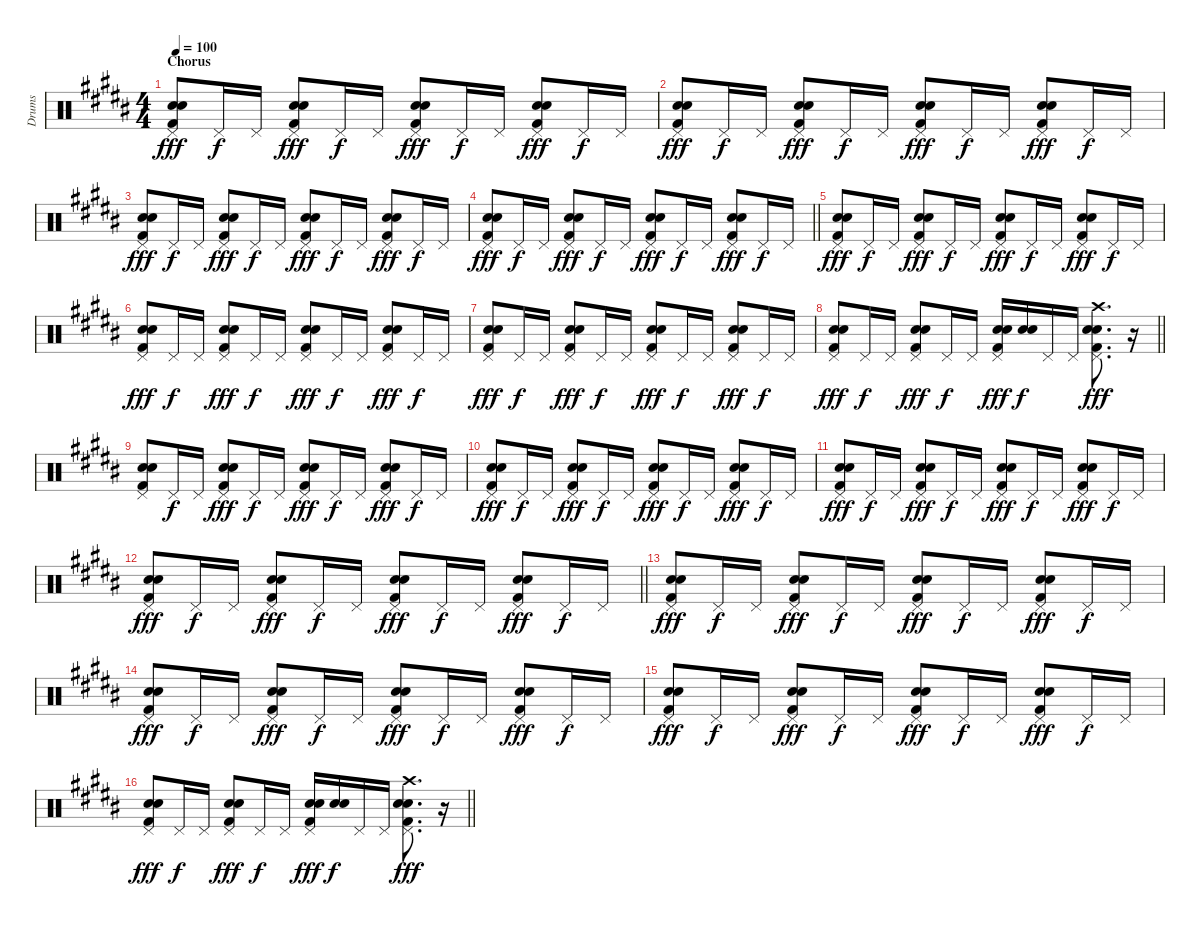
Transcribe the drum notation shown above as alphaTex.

\track ("Drums" "Drums") {instrument percussion}
\staff {score}
\articulation defaults
\ts (4 4)
\section ("" "Chorus")
\tempo 100
\clef neutral
\ks b
("Pedal Hi-Hat (hit)" "Snare (hit) 2" "Electric Snare (hit)" "Kick (hit) 2").8{dy fff} "Pedal Hi-Hat (hit)".16{dy f} "Pedal Hi-Hat (hit)".16 ("Pedal Hi-Hat (hit)" "Snare (hit) 2" "Electric Snare (hit)" "Kick (hit) 2").8{dy fff} "Pedal Hi-Hat (hit)".16{dy f} "Pedal Hi-Hat (hit)".16 ("Pedal Hi-Hat (hit)" "Snare (hit) 2" "Electric Snare (hit)" "Kick (hit) 2").8{dy fff} "Pedal Hi-Hat (hit)".16{dy f} "Pedal Hi-Hat (hit)".16 ("Pedal Hi-Hat (hit)" "Snare (hit) 2" "Electric Snare (hit)" "Kick (hit) 2").8{dy fff} "Pedal Hi-Hat (hit)".16{dy f} "Pedal Hi-Hat (hit)".16 |
("Pedal Hi-Hat (hit)" "Snare (hit) 2" "Electric Snare (hit)" "Kick (hit) 2").8{dy fff} "Pedal Hi-Hat (hit)".16{dy f} "Pedal Hi-Hat (hit)".16 ("Pedal Hi-Hat (hit)" "Snare (hit) 2" "Electric Snare (hit)" "Kick (hit) 2").8{dy fff} "Pedal Hi-Hat (hit)".16{dy f} "Pedal Hi-Hat (hit)".16 ("Pedal Hi-Hat (hit)" "Snare (hit) 2" "Electric Snare (hit)" "Kick (hit) 2").8{dy fff} "Pedal Hi-Hat (hit)".16{dy f} "Pedal Hi-Hat (hit)".16 ("Pedal Hi-Hat (hit)" "Snare (hit) 2" "Electric Snare (hit)" "Kick (hit) 2").8{dy fff} "Pedal Hi-Hat (hit)".16{dy f} "Pedal Hi-Hat (hit)".16 |
("Pedal Hi-Hat (hit)" "Snare (hit) 2" "Electric Snare (hit)" "Kick (hit) 2").8{dy fff} "Pedal Hi-Hat (hit)".16{dy f} "Pedal Hi-Hat (hit)".16 ("Pedal Hi-Hat (hit)" "Snare (hit) 2" "Electric Snare (hit)" "Kick (hit) 2").8{dy fff} "Pedal Hi-Hat (hit)".16{dy f} "Pedal Hi-Hat (hit)".16 ("Pedal Hi-Hat (hit)" "Snare (hit) 2" "Electric Snare (hit)" "Kick (hit) 2").8{dy fff} "Pedal Hi-Hat (hit)".16{dy f} "Pedal Hi-Hat (hit)".16 ("Pedal Hi-Hat (hit)" "Snare (hit) 2" "Electric Snare (hit)" "Kick (hit) 2").8{dy fff} "Pedal Hi-Hat (hit)".16{dy f} "Pedal Hi-Hat (hit)".16 |
\barLineRight lightlight
("Pedal Hi-Hat (hit)" "Snare (hit) 2" "Electric Snare (hit)" "Kick (hit) 2").8{dy fff} "Pedal Hi-Hat (hit)".16{dy f} "Pedal Hi-Hat (hit)".16 ("Pedal Hi-Hat (hit)" "Snare (hit) 2" "Electric Snare (hit)" "Kick (hit) 2").8{dy fff} "Pedal Hi-Hat (hit)".16{dy f} "Pedal Hi-Hat (hit)".16 ("Pedal Hi-Hat (hit)" "Snare (hit) 2" "Electric Snare (hit)" "Kick (hit) 2").8{dy fff} "Pedal Hi-Hat (hit)".16{dy f} "Pedal Hi-Hat (hit)".16 ("Pedal Hi-Hat (hit)" "Snare (hit) 2" "Electric Snare (hit)" "Kick (hit) 2").8{dy fff} "Pedal Hi-Hat (hit)".16{dy f} "Pedal Hi-Hat (hit)".16 |
("Pedal Hi-Hat (hit)" "Snare (hit) 2" "Electric Snare (hit)" "Kick (hit) 2").8{dy fff} "Pedal Hi-Hat (hit)".16{dy f} "Pedal Hi-Hat (hit)".16 ("Pedal Hi-Hat (hit)" "Snare (hit) 2" "Electric Snare (hit)" "Kick (hit) 2").8{dy fff} "Pedal Hi-Hat (hit)".16{dy f} "Pedal Hi-Hat (hit)".16 ("Pedal Hi-Hat (hit)" "Snare (hit) 2" "Electric Snare (hit)" "Kick (hit) 2").8{dy fff} "Pedal Hi-Hat (hit)".16{dy f} "Pedal Hi-Hat (hit)".16 ("Pedal Hi-Hat (hit)" "Snare (hit) 2" "Electric Snare (hit)" "Kick (hit) 2").8{dy fff} "Pedal Hi-Hat (hit)".16{dy f} "Pedal Hi-Hat (hit)".16 |
("Pedal Hi-Hat (hit)" "Snare (hit) 2" "Electric Snare (hit)" "Kick (hit) 2").8{dy fff} "Pedal Hi-Hat (hit)".16{dy f} "Pedal Hi-Hat (hit)".16 ("Pedal Hi-Hat (hit)" "Snare (hit) 2" "Electric Snare (hit)" "Kick (hit) 2").8{dy fff} "Pedal Hi-Hat (hit)".16{dy f} "Pedal Hi-Hat (hit)".16 ("Pedal Hi-Hat (hit)" "Snare (hit) 2" "Electric Snare (hit)" "Kick (hit) 2").8{dy fff} "Pedal Hi-Hat (hit)".16{dy f} "Pedal Hi-Hat (hit)".16 ("Pedal Hi-Hat (hit)" "Snare (hit) 2" "Electric Snare (hit)" "Kick (hit) 2").8{dy fff} "Pedal Hi-Hat (hit)".16{dy f} "Pedal Hi-Hat (hit)".16 |
("Pedal Hi-Hat (hit)" "Snare (hit) 2" "Electric Snare (hit)" "Kick (hit) 2").8{dy fff} "Pedal Hi-Hat (hit)".16{dy f} "Pedal Hi-Hat (hit)".16 ("Pedal Hi-Hat (hit)" "Snare (hit) 2" "Electric Snare (hit)" "Kick (hit) 2").8{dy fff} "Pedal Hi-Hat (hit)".16{dy f} "Pedal Hi-Hat (hit)".16 ("Pedal Hi-Hat (hit)" "Snare (hit) 2" "Electric Snare (hit)" "Kick (hit) 2").8{dy fff} "Pedal Hi-Hat (hit)".16{dy f} "Pedal Hi-Hat (hit)".16 ("Pedal Hi-Hat (hit)" "Snare (hit) 2" "Electric Snare (hit)" "Kick (hit) 2").8{dy fff} "Pedal Hi-Hat (hit)".16{dy f} "Pedal Hi-Hat (hit)".16 |
\barLineRight lightlight
("Pedal Hi-Hat (hit)" "Snare (hit) 2" "Electric Snare (hit)" "Kick (hit) 2").8{dy fff} "Pedal Hi-Hat (hit)".16{dy f} "Pedal Hi-Hat (hit)".16 ("Pedal Hi-Hat (hit)" "Snare (hit) 2" "Electric Snare (hit)" "Kick (hit) 2").8{dy fff} "Pedal Hi-Hat (hit)".16{dy f} "Pedal Hi-Hat (hit)".16 ("Pedal Hi-Hat (hit)" "Snare (hit) 2" "Electric Snare (hit)" "Kick (hit) 2").16{dy fff} ("Snare (hit) 2" "Electric Snare (hit)").16{dy f} "Pedal Hi-Hat (hit)".16 "Pedal Hi-Hat (hit)".16 ("Pedal Hi-Hat (hit)" "Snare (hit) 2" "Electric Snare (hit)" "Crash high (hit)" "Kick (hit) 2").8{d dy fff} r.16 |
("Pedal Hi-Hat (hit)" "Snare (hit) 2" "Electric Snare (hit)" "Kick (hit) 2").8 "Pedal Hi-Hat (hit)".16{dy f} "Pedal Hi-Hat (hit)".16 ("Pedal Hi-Hat (hit)" "Snare (hit) 2" "Electric Snare (hit)" "Kick (hit) 2").8{dy fff} "Pedal Hi-Hat (hit)".16{dy f} "Pedal Hi-Hat (hit)".16 ("Pedal Hi-Hat (hit)" "Snare (hit) 2" "Electric Snare (hit)" "Kick (hit) 2").8{dy fff} "Pedal Hi-Hat (hit)".16{dy f} "Pedal Hi-Hat (hit)".16 ("Pedal Hi-Hat (hit)" "Snare (hit) 2" "Electric Snare (hit)" "Kick (hit) 2").8{dy fff} "Pedal Hi-Hat (hit)".16{dy f} "Pedal Hi-Hat (hit)".16 |
("Pedal Hi-Hat (hit)" "Snare (hit) 2" "Electric Snare (hit)" "Kick (hit) 2").8{dy fff} "Pedal Hi-Hat (hit)".16{dy f} "Pedal Hi-Hat (hit)".16 ("Pedal Hi-Hat (hit)" "Snare (hit) 2" "Electric Snare (hit)" "Kick (hit) 2").8{dy fff} "Pedal Hi-Hat (hit)".16{dy f} "Pedal Hi-Hat (hit)".16 ("Pedal Hi-Hat (hit)" "Snare (hit) 2" "Electric Snare (hit)" "Kick (hit) 2").8{dy fff} "Pedal Hi-Hat (hit)".16{dy f} "Pedal Hi-Hat (hit)".16 ("Pedal Hi-Hat (hit)" "Snare (hit) 2" "Electric Snare (hit)" "Kick (hit) 2").8{dy fff} "Pedal Hi-Hat (hit)".16{dy f} "Pedal Hi-Hat (hit)".16 |
("Pedal Hi-Hat (hit)" "Snare (hit) 2" "Electric Snare (hit)" "Kick (hit) 2").8{dy fff} "Pedal Hi-Hat (hit)".16{dy f} "Pedal Hi-Hat (hit)".16 ("Pedal Hi-Hat (hit)" "Snare (hit) 2" "Electric Snare (hit)" "Kick (hit) 2").8{dy fff} "Pedal Hi-Hat (hit)".16{dy f} "Pedal Hi-Hat (hit)".16 ("Pedal Hi-Hat (hit)" "Snare (hit) 2" "Electric Snare (hit)" "Kick (hit) 2").8{dy fff} "Pedal Hi-Hat (hit)".16{dy f} "Pedal Hi-Hat (hit)".16 ("Pedal Hi-Hat (hit)" "Snare (hit) 2" "Electric Snare (hit)" "Kick (hit) 2").8{dy fff} "Pedal Hi-Hat (hit)".16{dy f} "Pedal Hi-Hat (hit)".16 |
\barLineRight lightlight
("Pedal Hi-Hat (hit)" "Snare (hit) 2" "Electric Snare (hit)" "Kick (hit) 2").8{dy fff} "Pedal Hi-Hat (hit)".16{dy f} "Pedal Hi-Hat (hit)".16 ("Pedal Hi-Hat (hit)" "Snare (hit) 2" "Electric Snare (hit)" "Kick (hit) 2").8{dy fff} "Pedal Hi-Hat (hit)".16{dy f} "Pedal Hi-Hat (hit)".16 ("Pedal Hi-Hat (hit)" "Snare (hit) 2" "Electric Snare (hit)" "Kick (hit) 2").8{dy fff} "Pedal Hi-Hat (hit)".16{dy f} "Pedal Hi-Hat (hit)".16 ("Pedal Hi-Hat (hit)" "Snare (hit) 2" "Electric Snare (hit)" "Kick (hit) 2").8{dy fff} "Pedal Hi-Hat (hit)".16{dy f} "Pedal Hi-Hat (hit)".16 |
("Pedal Hi-Hat (hit)" "Snare (hit) 2" "Electric Snare (hit)" "Kick (hit) 2").8{dy fff} "Pedal Hi-Hat (hit)".16{dy f} "Pedal Hi-Hat (hit)".16 ("Pedal Hi-Hat (hit)" "Snare (hit) 2" "Electric Snare (hit)" "Kick (hit) 2").8{dy fff} "Pedal Hi-Hat (hit)".16{dy f} "Pedal Hi-Hat (hit)".16 ("Pedal Hi-Hat (hit)" "Snare (hit) 2" "Electric Snare (hit)" "Kick (hit) 2").8{dy fff} "Pedal Hi-Hat (hit)".16{dy f} "Pedal Hi-Hat (hit)".16 ("Pedal Hi-Hat (hit)" "Snare (hit) 2" "Electric Snare (hit)" "Kick (hit) 2").8{dy fff} "Pedal Hi-Hat (hit)".16{dy f} "Pedal Hi-Hat (hit)".16 |
("Pedal Hi-Hat (hit)" "Snare (hit) 2" "Electric Snare (hit)" "Kick (hit) 2").8{dy fff} "Pedal Hi-Hat (hit)".16{dy f} "Pedal Hi-Hat (hit)".16 ("Pedal Hi-Hat (hit)" "Snare (hit) 2" "Electric Snare (hit)" "Kick (hit) 2").8{dy fff} "Pedal Hi-Hat (hit)".16{dy f} "Pedal Hi-Hat (hit)".16 ("Pedal Hi-Hat (hit)" "Snare (hit) 2" "Electric Snare (hit)" "Kick (hit) 2").8{dy fff} "Pedal Hi-Hat (hit)".16{dy f} "Pedal Hi-Hat (hit)".16 ("Pedal Hi-Hat (hit)" "Snare (hit) 2" "Electric Snare (hit)" "Kick (hit) 2").8{dy fff} "Pedal Hi-Hat (hit)".16{dy f} "Pedal Hi-Hat (hit)".16 |
("Pedal Hi-Hat (hit)" "Snare (hit) 2" "Electric Snare (hit)" "Kick (hit) 2").8{dy fff} "Pedal Hi-Hat (hit)".16{dy f} "Pedal Hi-Hat (hit)".16 ("Pedal Hi-Hat (hit)" "Snare (hit) 2" "Electric Snare (hit)" "Kick (hit) 2").8{dy fff} "Pedal Hi-Hat (hit)".16{dy f} "Pedal Hi-Hat (hit)".16 ("Pedal Hi-Hat (hit)" "Snare (hit) 2" "Electric Snare (hit)" "Kick (hit) 2").8{dy fff} "Pedal Hi-Hat (hit)".16{dy f} "Pedal Hi-Hat (hit)".16 ("Pedal Hi-Hat (hit)" "Snare (hit) 2" "Electric Snare (hit)" "Kick (hit) 2").8{dy fff} "Pedal Hi-Hat (hit)".16{dy f} "Pedal Hi-Hat (hit)".16 |
\barLineRight lightlight
("Pedal Hi-Hat (hit)" "Snare (hit) 2" "Electric Snare (hit)" "Kick (hit) 2").8{dy fff} "Pedal Hi-Hat (hit)".16{dy f} "Pedal Hi-Hat (hit)".16 ("Pedal Hi-Hat (hit)" "Snare (hit) 2" "Electric Snare (hit)" "Kick (hit) 2").8{dy fff} "Pedal Hi-Hat (hit)".16{dy f} "Pedal Hi-Hat (hit)".16 ("Pedal Hi-Hat (hit)" "Snare (hit) 2" "Electric Snare (hit)" "Kick (hit) 2").16{dy fff} ("Snare (hit) 2" "Electric Snare (hit)").16{dy f} "Pedal Hi-Hat (hit)".16 "Pedal Hi-Hat (hit)".16 ("Pedal Hi-Hat (hit)" "Snare (hit) 2" "Electric Snare (hit)" "Crash high (hit)" "Kick (hit) 2").8{d dy fff} r.16
